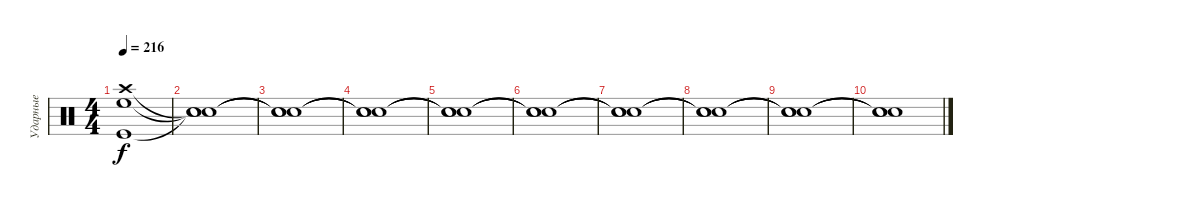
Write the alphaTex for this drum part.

\track ("Ударные" "Ударные") {instrument percussion}
\staff {score}
\articulation defaults
\ts (4 4)
\tempo 216
\clef neutral
\ks c
("Kick (hit)" "Crash high (hit)" "High Floor Tom (hit)").1{dy f} |
("Snare (hit)"{t} "Snare (hit)"{t} "Snare (hit)"{t}).1 |
("Snare (hit)"{t} "Snare (hit)"{t} "Snare (hit)"{t}).1 |
("Snare (hit)"{t} "Snare (hit)"{t} "Snare (hit)"{t}).1 |
("Snare (hit)"{t} "Snare (hit)"{t} "Snare (hit)"{t}).1 |
("Snare (hit)"{t} "Snare (hit)"{t} "Snare (hit)"{t}).1 |
("Snare (hit)"{t} "Snare (hit)"{t} "Snare (hit)"{t}).1 |
("Snare (hit)"{t} "Snare (hit)"{t} "Snare (hit)"{t}).1 |
("Snare (hit)"{t} "Snare (hit)"{t} "Snare (hit)"{t}).1 |
("Snare (hit)"{t} "Snare (hit)"{t} "Snare (hit)"{t}).1
